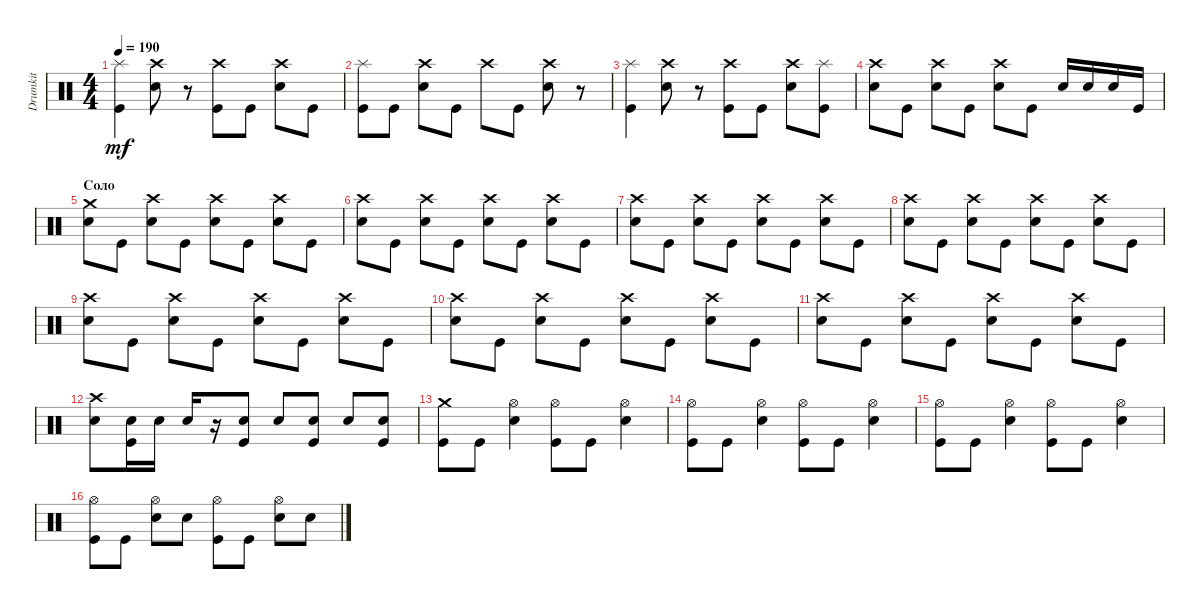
\track ("Drumkit" "Drumkit") {instrument percussion}
\staff {score}
\articulation defaults
\ts (4 4)
\tempo 190
\clef neutral
\ks c
("Kick (hit)" "Splash (hit)").4{dy mf} ("Snare (hit) 2" "Crash high (hit)").8 r.8 ("Kick (hit)" "Crash high (hit)").8 "Kick (hit)".8 ("Snare (hit) 2" "Crash high (hit)").8 "Kick (hit)".8 |
("Splash (hit)" "Kick (hit)").8 "Kick (hit)".8 ("Snare (hit) 2" "Crash high (hit)").8 "Kick (hit)".8 "Crash high (hit)".8 "Kick (hit)".8 ("Snare (hit) 2" "Crash high (hit)").8 r.8 |
("Kick (hit)" "Splash (hit)").4 ("Snare (hit) 2" "Crash high (hit)").8 r.8 ("Kick (hit)" "Crash high (hit)").8 "Kick (hit)".8 ("Snare (hit) 2" "Crash high (hit)").8 ("Splash (hit)" "Kick (hit)").8 |
("Snare (hit) 2" "Crash high (hit)").8 "Kick (hit)".8 ("Snare (hit) 2" "Crash high (hit)").8 "Kick (hit)".8 ("Snare (hit) 2" "Crash high (hit)").8 "Kick (hit)".8 "Snare (hit) 2".16 "Snare (hit) 2".16 "Snare (hit) 2".16 "Kick (hit)".16 |
\section ("" "Соло")
("Snare (hit) 2" "Crash medium (hit)").8 "Kick (hit)".8 ("Snare (hit) 2" "Crash high (hit)").8 "Kick (hit)".8 ("Snare (hit) 2" "Crash high (hit)").8 "Kick (hit)".8 ("Snare (hit) 2" "Crash high (hit)").8 "Kick (hit)".8 |
("Snare (hit) 2" "Crash high (hit)").8 "Kick (hit)".8 ("Snare (hit) 2" "Crash high (hit)").8 "Kick (hit)".8 ("Snare (hit) 2" "Crash high (hit)").8 "Kick (hit)".8 ("Snare (hit) 2" "Crash high (hit)").8 "Kick (hit)".8 |
("Snare (hit) 2" "Crash high (hit)").8 "Kick (hit)".8 ("Snare (hit) 2" "Crash high (hit)").8 "Kick (hit)".8 ("Snare (hit) 2" "Crash high (hit)").8 "Kick (hit)".8 ("Snare (hit) 2" "Crash high (hit)").8 "Kick (hit)".8 |
("Snare (hit) 2" "Crash high (hit)").8 "Kick (hit)".8 ("Snare (hit) 2" "Crash high (hit)").8 "Kick (hit)".8 ("Snare (hit) 2" "Crash high (hit)").8 "Kick (hit)".8 ("Snare (hit) 2" "Crash high (hit)").8 "Kick (hit)".8 |
("Snare (hit) 2" "Crash high (hit)").8 "Kick (hit)".8 ("Snare (hit) 2" "Crash high (hit)").8 "Kick (hit)".8 ("Snare (hit) 2" "Crash high (hit)").8 "Kick (hit)".8 ("Snare (hit) 2" "Crash high (hit)").8 "Kick (hit)".8 |
("Snare (hit) 2" "Crash high (hit)").8 "Kick (hit)".8 ("Snare (hit) 2" "Crash high (hit)").8 "Kick (hit)".8 ("Snare (hit) 2" "Crash high (hit)").8 "Kick (hit)".8 ("Snare (hit) 2" "Crash high (hit)").8 "Kick (hit)".8 |
("Snare (hit) 2" "Crash high (hit)").8 "Kick (hit)".8 ("Snare (hit) 2" "Crash high (hit)").8 "Kick (hit)".8 ("Snare (hit) 2" "Crash high (hit)").8 "Kick (hit)".8 ("Snare (hit) 2" "Crash high (hit)").8 "Kick (hit)".8 |
("Snare (hit) 2" "Crash high (hit)").8 ("Kick (hit)" "Snare (hit) 2").16 "Snare (hit) 2".16 "Snare (hit) 2".16 r.16 ("Kick (hit)" "Snare (hit) 2").8 "Snare (hit) 2".8 ("Kick (hit)" "Snare (hit) 2").8 "Snare (hit) 2".8 ("Kick (hit)" "Snare (hit) 2").8 |
("Kick (hit)" "Crash medium (hit)").8 "Kick (hit)".8 ("Snare (hit) 2" "Hi-Hat (open)").4 ("Kick (hit)" "Hi-Hat (open)").8 "Kick (hit)".8 ("Snare (hit) 2" "Hi-Hat (open)").4 |
("Kick (hit)" "Hi-Hat (open)").8 "Kick (hit)".8 ("Snare (hit) 2" "Hi-Hat (open)").4 ("Kick (hit)" "Hi-Hat (open)").8 "Kick (hit)".8 ("Snare (hit) 2" "Hi-Hat (open)").4 |
("Kick (hit)" "Hi-Hat (open)").8 "Kick (hit)".8 ("Snare (hit) 2" "Hi-Hat (open)").4 ("Kick (hit)" "Hi-Hat (open)").8 "Kick (hit)".8 ("Snare (hit) 2" "Hi-Hat (open)").4 |
("Kick (hit)" "Hi-Hat (open)").8 "Kick (hit)".8 ("Snare (hit) 2" "Hi-Hat (open)").8 "Snare (hit) 2".8 ("Kick (hit)" "Hi-Hat (open)").8 "Kick (hit)".8 ("Snare (hit) 2" "Hi-Hat (open)").8 "Snare (hit) 2".8
